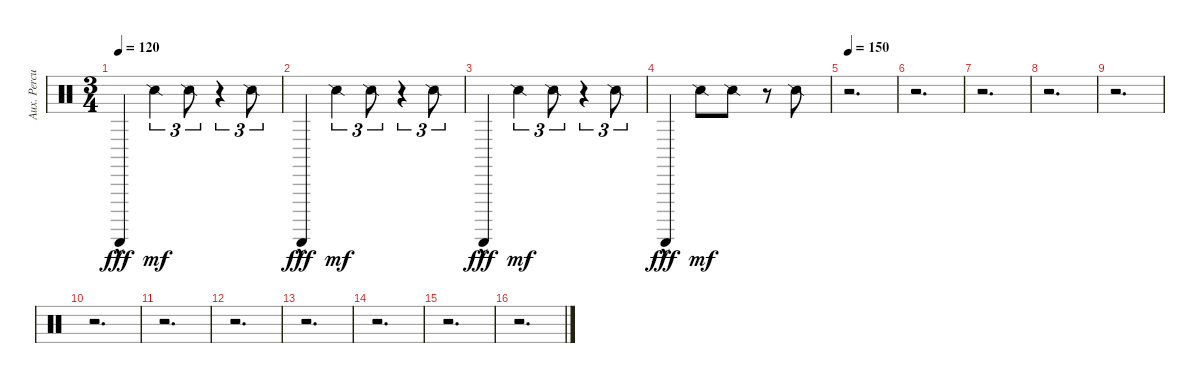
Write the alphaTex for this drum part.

\track ("Aux. Percussion" "Aux. Percu") {instrument percussion}
\staff {score}
\articulation defaults
\ts (3 4)
\tempo 120
\clef neutral
\ks c "Guiro (scrap-return)"{hac}.4{dy fff} "Snare (side stick) 2".4{tu (3 2) dy mf} "Snare (side stick) 2".8{tu (3 2)}
r.4{tu (3 2)} "Snare (side stick) 2".8{tu (3 2)} |
"Guiro (scrap-return)"{hac}.4{dy fff} "Snare (side stick) 2".4{tu (3 2) dy mf} "Snare (side stick) 2".8{tu (3 2)} r.4{tu (3 2)} "Snare (side stick) 2".8{tu (3 2)} |
"Guiro (scrap-return)"{hac}.4{dy fff} "Snare (side stick) 2".4{tu (3 2) dy mf} "Snare (side stick) 2".8{tu (3 2)} r.4{tu (3 2)} "Snare (side stick) 2".8{tu (3 2)} |
"Guiro (scrap-return)"{hac}.4{dy fff} "Snare (side stick) 2".8{dy mf} "Snare (side stick) 2".8 r.8 "Snare (side stick) 2".8 |
\tempo 150
r.2{d} |
r.2{d} |
r.2{d} |
r.2{d} |
r.2{d} |
r.2{d} |
r.2{d} |
r.2{d} |
r.2{d} |
r.2{d} |
r.2{d} |
r.2{d}
